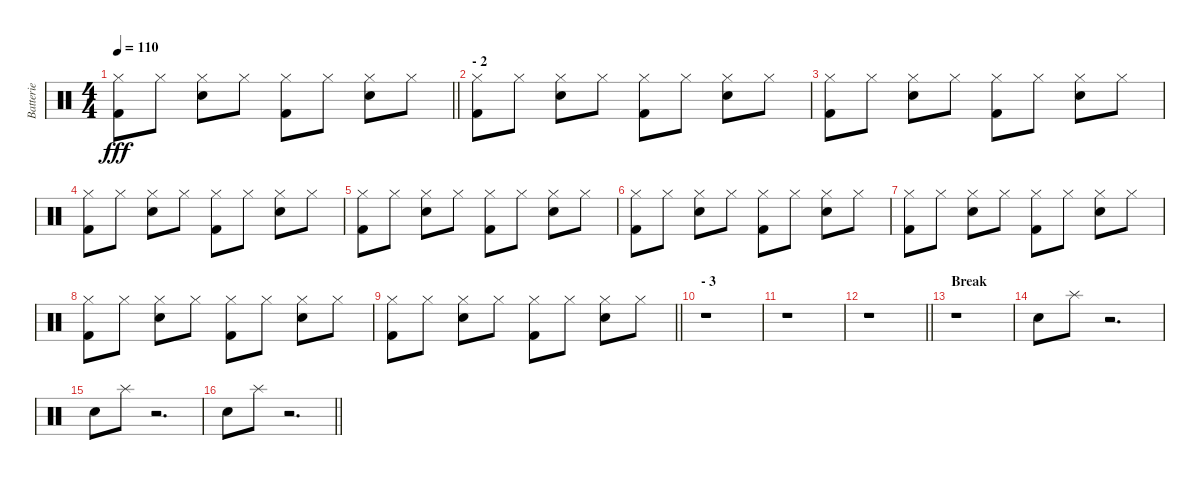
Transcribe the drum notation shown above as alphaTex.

\track ("Batterie" "Batterie") {instrument percussion}
\staff {score}
\articulation defaults
\ts (4 4)
\tempo 110
\clef neutral
\barLineRight lightlight
\ks c
("Hi-Hat (closed)" "Kick (hit) 2").8{dy fff} "Hi-Hat (closed)".8 ("Hi-Hat (closed)" "Snare (hit) 2").8 "Hi-Hat (closed)".8 ("Hi-Hat (closed)" "Kick (hit) 2").8 "Hi-Hat (closed)".8 ("Hi-Hat (closed)" "Snare (hit) 2").8 "Hi-Hat (closed)".8 |
\section ("" "- 2")
("Hi-Hat (closed)" "Kick (hit) 2").8 "Hi-Hat (closed)".8 ("Hi-Hat (closed)" "Snare (hit) 2").8 "Hi-Hat (closed)".8 ("Hi-Hat (closed)" "Kick (hit) 2").8 "Hi-Hat (closed)".8 ("Hi-Hat (closed)" "Snare (hit) 2").8 "Hi-Hat (closed)".8 |
("Hi-Hat (closed)" "Kick (hit) 2").8 "Hi-Hat (closed)".8 ("Hi-Hat (closed)" "Snare (hit) 2").8 "Hi-Hat (closed)".8 ("Hi-Hat (closed)" "Kick (hit) 2").8 "Hi-Hat (closed)".8 ("Hi-Hat (closed)" "Snare (hit) 2").8 "Hi-Hat (closed)".8 |
("Hi-Hat (closed)" "Kick (hit) 2").8 "Hi-Hat (closed)".8 ("Hi-Hat (closed)" "Snare (hit) 2").8 "Hi-Hat (closed)".8 ("Hi-Hat (closed)" "Kick (hit) 2").8 "Hi-Hat (closed)".8 ("Hi-Hat (closed)" "Snare (hit) 2").8 "Hi-Hat (closed)".8 |
("Hi-Hat (closed)" "Kick (hit) 2").8 "Hi-Hat (closed)".8 ("Hi-Hat (closed)" "Snare (hit) 2").8 "Hi-Hat (closed)".8 ("Hi-Hat (closed)" "Kick (hit) 2").8 "Hi-Hat (closed)".8 ("Hi-Hat (closed)" "Snare (hit) 2").8 "Hi-Hat (closed)".8 |
("Hi-Hat (closed)" "Kick (hit) 2").8 "Hi-Hat (closed)".8 ("Hi-Hat (closed)" "Snare (hit) 2").8 "Hi-Hat (closed)".8 ("Hi-Hat (closed)" "Kick (hit) 2").8 "Hi-Hat (closed)".8 ("Hi-Hat (closed)" "Snare (hit) 2").8 "Hi-Hat (closed)".8 |
("Hi-Hat (closed)" "Kick (hit) 2").8 "Hi-Hat (closed)".8 ("Hi-Hat (closed)" "Snare (hit) 2").8 "Hi-Hat (closed)".8 ("Hi-Hat (closed)" "Kick (hit) 2").8 "Hi-Hat (closed)".8 ("Hi-Hat (closed)" "Snare (hit) 2").8 "Hi-Hat (closed)".8 |
("Hi-Hat (closed)" "Kick (hit) 2").8 "Hi-Hat (closed)".8 ("Hi-Hat (closed)" "Snare (hit) 2").8 "Hi-Hat (closed)".8 ("Hi-Hat (closed)" "Kick (hit) 2").8 "Hi-Hat (closed)".8 ("Hi-Hat (closed)" "Snare (hit) 2").8 "Hi-Hat (closed)".8 |
\barLineRight lightlight
("Hi-Hat (closed)" "Kick (hit) 2").8 "Hi-Hat (closed)".8 ("Hi-Hat (closed)" "Snare (hit) 2").8 "Hi-Hat (closed)".8 ("Hi-Hat (closed)" "Kick (hit) 2").8 "Hi-Hat (closed)".8 ("Hi-Hat (closed)" "Snare (hit) 2").8 "Hi-Hat (closed)".8 |
\section ("" "- 3")
r.1 |
r.1 |
\barLineRight lightlight
r.1 |
\section ("" "Break")
r.1 |
"Snare (hit) 2".8 "Splash (hit)".8 r.2{d} |
"Snare (hit) 2".8 "Splash (hit)".8 r.2{d} |
\barLineRight lightlight "Snare (hit) 2".8 "Splash (hit)".8
r.2{d}
